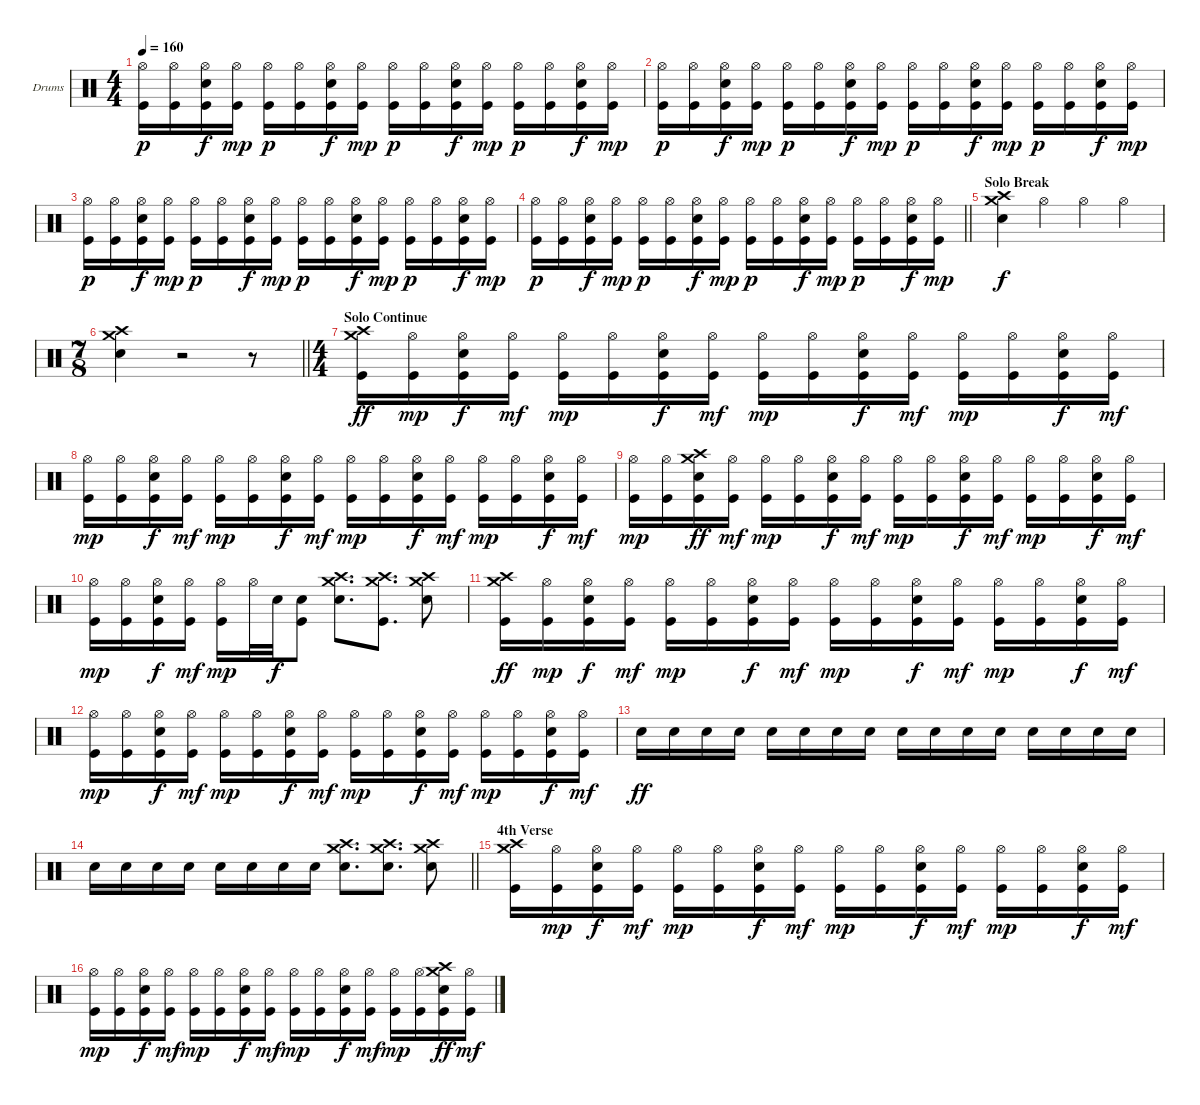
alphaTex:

\bracketExtendMode groupsimilarinstruments
\firstSystemTrackNameOrientation horizontal
\otherSystemsTrackNameOrientation horizontal
\track ("Drumkit" "Drums") {instrument percussion}
\staff {score}
\articulation defaults
\ts (4 4)
\tempo 160
\clef neutral
\ks c
("Hi-Hat (open)" "Kick (hit)").16{dy p} ("Hi-Hat (open)" "Kick (hit)").16 ("Hi-Hat (open)" "Snare (hit) 2" "Kick (hit)").16{dy f} ("Hi-Hat (open)" "Kick (hit)").16{dy mp} ("Hi-Hat (open)" "Kick (hit)").16{dy p} ("Hi-Hat (open)" "Kick (hit)").16 ("Hi-Hat (open)" "Snare (hit) 2" "Kick (hit)").16{dy f} ("Hi-Hat (open)" "Kick (hit)").16{dy mp} ("Hi-Hat (open)" "Kick (hit)").16{dy p} ("Hi-Hat (open)" "Kick (hit)").16 ("Hi-Hat (open)" "Snare (hit) 2" "Kick (hit)").16{dy f} ("Hi-Hat (open)" "Kick (hit)").16{dy mp} ("Hi-Hat (open)" "Kick (hit)").16{dy p} ("Hi-Hat (open)" "Kick (hit)").16 ("Hi-Hat (open)" "Snare (hit) 2" "Kick (hit)").16{dy f} ("Hi-Hat (open)" "Kick (hit)").16{dy mp} |
("Hi-Hat (open)" "Kick (hit)").16{dy p} ("Hi-Hat (open)" "Kick (hit)").16 ("Hi-Hat (open)" "Snare (hit) 2" "Kick (hit)").16{dy f} ("Hi-Hat (open)" "Kick (hit)").16{dy mp} ("Hi-Hat (open)" "Kick (hit)").16{dy p} ("Hi-Hat (open)" "Kick (hit)").16 ("Hi-Hat (open)" "Snare (hit) 2" "Kick (hit)").16{dy f} ("Hi-Hat (open)" "Kick (hit)").16{dy mp} ("Hi-Hat (open)" "Kick (hit)").16{dy p} ("Hi-Hat (open)" "Kick (hit)").16 ("Hi-Hat (open)" "Snare (hit) 2" "Kick (hit)").16{dy f} ("Hi-Hat (open)" "Kick (hit)").16{dy mp} ("Hi-Hat (open)" "Kick (hit)").16{dy p} ("Hi-Hat (open)" "Kick (hit)").16 ("Hi-Hat (open)" "Snare (hit) 2" "Kick (hit)").16{dy f} ("Hi-Hat (open)" "Kick (hit)").16{dy mp} |
("Hi-Hat (open)" "Kick (hit)").16{dy p} ("Hi-Hat (open)" "Kick (hit)").16 ("Hi-Hat (open)" "Snare (hit) 2" "Kick (hit)").16{dy f} ("Hi-Hat (open)" "Kick (hit)").16{dy mp} ("Hi-Hat (open)" "Kick (hit)").16{dy p} ("Hi-Hat (open)" "Kick (hit)").16 ("Hi-Hat (open)" "Snare (hit) 2" "Kick (hit)").16{dy f} ("Hi-Hat (open)" "Kick (hit)").16{dy mp} ("Hi-Hat (open)" "Kick (hit)").16{dy p} ("Hi-Hat (open)" "Kick (hit)").16 ("Hi-Hat (open)" "Snare (hit) 2" "Kick (hit)").16{dy f} ("Hi-Hat (open)" "Kick (hit)").16{dy mp} ("Hi-Hat (open)" "Kick (hit)").16{dy p} ("Hi-Hat (open)" "Kick (hit)").16 ("Hi-Hat (open)" "Snare (hit) 2" "Kick (hit)").16{dy f} ("Hi-Hat (open)" "Kick (hit)").16{dy mp} |
\barLineRight lightlight
("Hi-Hat (open)" "Kick (hit)").16{dy p} ("Hi-Hat (open)" "Kick (hit)").16 ("Hi-Hat (open)" "Snare (hit) 2" "Kick (hit)").16{dy f} ("Hi-Hat (open)" "Kick (hit)").16{dy mp} ("Hi-Hat (open)" "Kick (hit)").16{dy p} ("Hi-Hat (open)" "Kick (hit)").16 ("Hi-Hat (open)" "Snare (hit) 2" "Kick (hit)").16{dy f} ("Hi-Hat (open)" "Kick (hit)").16{dy mp} ("Hi-Hat (open)" "Kick (hit)").16{dy p} ("Hi-Hat (open)" "Kick (hit)").16 ("Hi-Hat (open)" "Snare (hit) 2" "Kick (hit)").16{dy f} ("Hi-Hat (open)" "Kick (hit)").16{dy mp} ("Hi-Hat (open)" "Kick (hit)").16{dy p} ("Hi-Hat (open)" "Kick (hit)").16 ("Hi-Hat (open)" "Snare (hit) 2" "Kick (hit)").16{dy f} ("Hi-Hat (open)" "Kick (hit)").16{dy mp} |
\section ("" "Solo Break")
("Crash medium (hit)" "Crash high (hit)" "Snare (hit) 2").4{dy f} "Hi-Hat (open)".4 "Hi-Hat (open)".4 "Hi-Hat (open)".4 |
\ts (7 8)
\beaming (8 3 2 2)
\barLineRight lightlight
("Crash medium (hit)" "Crash high (hit)" "Snare (hit) 2").4 r.2 r.8 |
\ts (4 4)
\beaming (8 2 2 2 2)
\section ("" "Solo Continue")
("Crash medium (hit)" "Crash high (hit)" "Kick (hit)").16{dy ff} ("Hi-Hat (open)" "Kick (hit)").16{dy mp} ("Hi-Hat (open)" "Snare (hit) 2" "Kick (hit)").16{dy f} ("Hi-Hat (open)" "Kick (hit)").16{dy mf} ("Hi-Hat (open)" "Kick (hit)").16{dy mp} ("Hi-Hat (open)" "Kick (hit)").16 ("Hi-Hat (open)" "Snare (hit) 2" "Kick (hit)").16{dy f} ("Hi-Hat (open)" "Kick (hit)").16{dy mf} ("Hi-Hat (open)" "Kick (hit)").16{dy mp} ("Hi-Hat (open)" "Kick (hit)").16 ("Hi-Hat (open)" "Snare (hit) 2" "Kick (hit)").16{dy f} ("Hi-Hat (open)" "Kick (hit)").16{dy mf} ("Hi-Hat (open)" "Kick (hit)").16{dy mp} ("Hi-Hat (open)" "Kick (hit)").16 ("Hi-Hat (open)" "Snare (hit) 2" "Kick (hit)").16{dy f} ("Hi-Hat (open)" "Kick (hit)").16{dy mf} |
("Hi-Hat (open)" "Kick (hit)").16{dy mp} ("Hi-Hat (open)" "Kick (hit)").16 ("Hi-Hat (open)" "Snare (hit) 2" "Kick (hit)").16{dy f} ("Hi-Hat (open)" "Kick (hit)").16{dy mf} ("Hi-Hat (open)" "Kick (hit)").16{dy mp} ("Hi-Hat (open)" "Kick (hit)").16 ("Hi-Hat (open)" "Snare (hit) 2" "Kick (hit)").16{dy f} ("Hi-Hat (open)" "Kick (hit)").16{dy mf} ("Hi-Hat (open)" "Kick (hit)").16{dy mp} ("Hi-Hat (open)" "Kick (hit)").16 ("Hi-Hat (open)" "Snare (hit) 2" "Kick (hit)").16{dy f} ("Hi-Hat (open)" "Kick (hit)").16{dy mf} ("Hi-Hat (open)" "Kick (hit)").16{dy mp} ("Hi-Hat (open)" "Kick (hit)").16 ("Hi-Hat (open)" "Snare (hit) 2" "Kick (hit)").16{dy f} ("Hi-Hat (open)" "Kick (hit)").16{dy mf} |
("Hi-Hat (open)" "Kick (hit)").16{dy mp} ("Hi-Hat (open)" "Kick (hit)").16 ("Crash medium (hit)" "Crash high (hit)" "Snare (hit) 2" "Kick (hit)").16{dy ff} ("Hi-Hat (open)" "Kick (hit)").16{dy mf} ("Hi-Hat (open)" "Kick (hit)").16{dy mp} ("Hi-Hat (open)" "Kick (hit)").16 ("Hi-Hat (open)" "Snare (hit) 2" "Kick (hit)").16{dy f} ("Hi-Hat (open)" "Kick (hit)").16{dy mf} ("Hi-Hat (open)" "Kick (hit)").16{dy mp} ("Hi-Hat (open)" "Kick (hit)").16 ("Hi-Hat (open)" "Snare (hit) 2" "Kick (hit)").16{dy f} ("Hi-Hat (open)" "Kick (hit)").16{dy mf} ("Hi-Hat (open)" "Kick (hit)").16{dy mp} ("Hi-Hat (open)" "Kick (hit)").16 ("Hi-Hat (open)" "Snare (hit) 2" "Kick (hit)").16{dy f} ("Hi-Hat (open)" "Kick (hit)").16{dy mf} |
("Hi-Hat (open)" "Kick (hit)").16{dy mp} ("Hi-Hat (open)" "Kick (hit)").16 ("Hi-Hat (open)" "Snare (hit) 2" "Kick (hit)").16{dy f} ("Hi-Hat (open)" "Kick (hit)").16{dy mf} ("Hi-Hat (open)" "Kick (hit)").16{dy mp} "Hi-Hat (open)".32 "Snare (hit) 2".32{dy f} ("Snare (hit) 2" "Kick (hit)").8 ("Crash medium (hit)" "Crash high (hit)" "Snare (hit) 2").8{d} ("Crash medium (hit)" "Crash high (hit)" "Kick (hit)").8{d} ("Crash medium (hit)" "Crash high (hit)" "Snare (hit) 2").8 |
("Crash medium (hit)" "Crash high (hit)" "Kick (hit)").16{dy ff} ("Hi-Hat (open)" "Kick (hit)").16{dy mp} ("Hi-Hat (open)" "Snare (hit) 2" "Kick (hit)").16{dy f} ("Hi-Hat (open)" "Kick (hit)").16{dy mf} ("Hi-Hat (open)" "Kick (hit)").16{dy mp} ("Hi-Hat (open)" "Kick (hit)").16 ("Hi-Hat (open)" "Snare (hit) 2" "Kick (hit)").16{dy f} ("Hi-Hat (open)" "Kick (hit)").16{dy mf} ("Hi-Hat (open)" "Kick (hit)").16{dy mp} ("Hi-Hat (open)" "Kick (hit)").16 ("Hi-Hat (open)" "Snare (hit) 2" "Kick (hit)").16{dy f} ("Hi-Hat (open)" "Kick (hit)").16{dy mf} ("Hi-Hat (open)" "Kick (hit)").16{dy mp} ("Hi-Hat (open)" "Kick (hit)").16 ("Hi-Hat (open)" "Snare (hit) 2" "Kick (hit)").16{dy f} ("Hi-Hat (open)" "Kick (hit)").16{dy mf} |
("Hi-Hat (open)" "Kick (hit)").16{dy mp} ("Hi-Hat (open)" "Kick (hit)").16 ("Hi-Hat (open)" "Snare (hit) 2" "Kick (hit)").16{dy f} ("Hi-Hat (open)" "Kick (hit)").16{dy mf} ("Hi-Hat (open)" "Kick (hit)").16{dy mp} ("Hi-Hat (open)" "Kick (hit)").16 ("Hi-Hat (open)" "Snare (hit) 2" "Kick (hit)").16{dy f} ("Hi-Hat (open)" "Kick (hit)").16{dy mf} ("Hi-Hat (open)" "Kick (hit)").16{dy mp} ("Hi-Hat (open)" "Kick (hit)").16 ("Hi-Hat (open)" "Snare (hit) 2" "Kick (hit)").16{dy f} ("Hi-Hat (open)" "Kick (hit)").16{dy mf} ("Hi-Hat (open)" "Kick (hit)").16{dy mp} ("Hi-Hat (open)" "Kick (hit)").16 ("Hi-Hat (open)" "Snare (hit) 2" "Kick (hit)").16{dy f} ("Hi-Hat (open)" "Kick (hit)").16{dy mf} |
"Snare (hit) 2".16{dy ff} "Snare (hit) 2".16 "Snare (hit) 2".16 "Snare (hit) 2".16 "Snare (hit) 2".16 "Snare (hit) 2".16 "Snare (hit) 2".16 "Snare (hit) 2".16 "Snare (hit) 2".16 "Snare (hit) 2".16 "Snare (hit) 2".16 "Snare (hit) 2".16 "Snare (hit) 2".16 "Snare (hit) 2".16 "Snare (hit) 2".16 "Snare (hit) 2".16 |
\barLineRight lightlight "Snare (hit) 2".16 "Snare (hit) 2".16 "Snare (hit) 2".16 "Snare (hit) 2".16 "Snare (hit) 2".16 "Snare (hit) 2".16 "Snare (hit) 2".16 "Snare (hit) 2".16
("Crash medium (hit)" "Crash high (hit)" "Snare (hit) 2").8{d} ("Crash medium (hit)" "Crash high (hit)" "Snare (hit) 2").8{d} ("Crash medium (hit)" "Crash high (hit)" "Snare (hit) 2").8 |
\section ("" "4th Verse")
("Crash medium (hit)" "Crash high (hit)" "Kick (hit)").16 ("Hi-Hat (open)" "Kick (hit)").16{dy mp} ("Hi-Hat (open)" "Snare (hit) 2" "Kick (hit)").16{dy f} ("Hi-Hat (open)" "Kick (hit)").16{dy mf} ("Hi-Hat (open)" "Kick (hit)").16{dy mp} ("Hi-Hat (open)" "Kick (hit)").16 ("Hi-Hat (open)" "Snare (hit) 2" "Kick (hit)").16{dy f} ("Hi-Hat (open)" "Kick (hit)").16{dy mf} ("Hi-Hat (open)" "Kick (hit)").16{dy mp} ("Hi-Hat (open)" "Kick (hit)").16 ("Hi-Hat (open)" "Snare (hit) 2" "Kick (hit)").16{dy f} ("Hi-Hat (open)" "Kick (hit)").16{dy mf} ("Hi-Hat (open)" "Kick (hit)").16{dy mp} ("Hi-Hat (open)" "Kick (hit)").16 ("Hi-Hat (open)" "Snare (hit) 2" "Kick (hit)").16{dy f} ("Hi-Hat (open)" "Kick (hit)").16{dy mf} |
("Hi-Hat (open)" "Kick (hit)").16{dy mp} ("Hi-Hat (open)" "Kick (hit)").16 ("Hi-Hat (open)" "Snare (hit) 2" "Kick (hit)").16{dy f} ("Hi-Hat (open)" "Kick (hit)").16{dy mf} ("Hi-Hat (open)" "Kick (hit)").16{dy mp} ("Hi-Hat (open)" "Kick (hit)").16 ("Hi-Hat (open)" "Snare (hit) 2" "Kick (hit)").16{dy f} ("Hi-Hat (open)" "Kick (hit)").16{dy mf} ("Hi-Hat (open)" "Kick (hit)").16{dy mp} ("Hi-Hat (open)" "Kick (hit)").16 ("Hi-Hat (open)" "Snare (hit) 2" "Kick (hit)").16{dy f} ("Hi-Hat (open)" "Kick (hit)").16{dy mf} ("Hi-Hat (open)" "Kick (hit)").16{dy mp} ("Hi-Hat (open)" "Kick (hit)").16 ("Crash medium (hit)" "Crash high (hit)" "Snare (hit) 2" "Kick (hit)").16{dy ff} ("Hi-Hat (open)" "Kick (hit)").16{dy mf}
